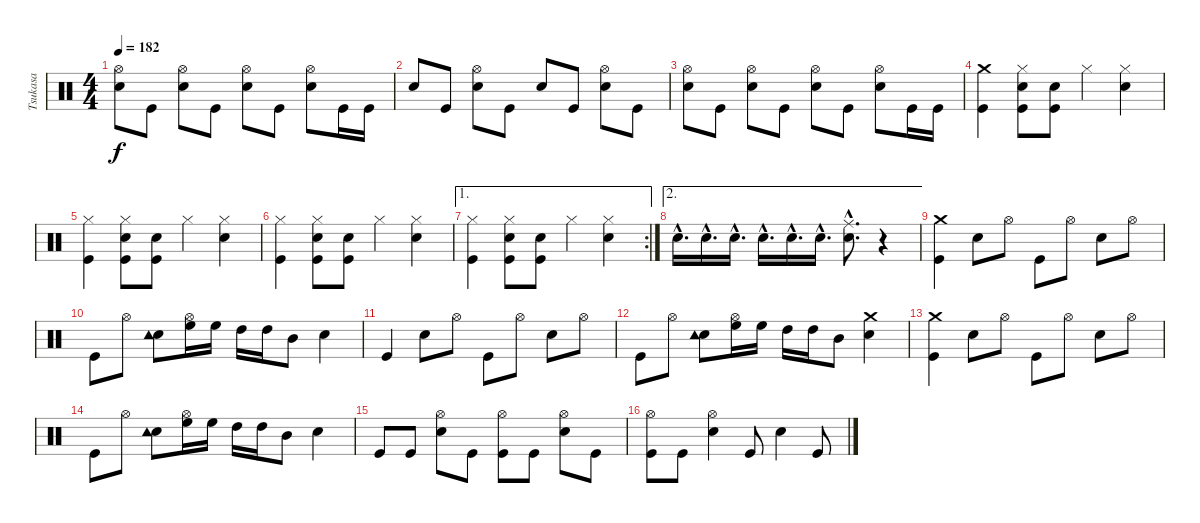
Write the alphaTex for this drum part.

\track ("Tsukasa" "Tsukasa") {instrument percussion}
\staff {score}
\articulation defaults
\ts (4 4)
\tempo 182
\clef neutral
\ks c
("Electric Snare (hit)" "Hi-Hat (open)").8{dy f} "Kick (hit)".8 ("Electric Snare (hit)" "Hi-Hat (open)").8 "Kick (hit)".8 ("Electric Snare (hit)" "Hi-Hat (open)").8 "Kick (hit)".8 ("Electric Snare (hit)" "Hi-Hat (open)").8 "Kick (hit)".16 "Kick (hit)".16 |
"Electric Snare (hit)".8 "Kick (hit)".8 ("Electric Snare (hit)" "Hi-Hat (open)").8 "Kick (hit)".8 "Electric Snare (hit)".8 "Kick (hit)".8 ("Electric Snare (hit)" "Hi-Hat (open)").8 "Kick (hit)".8 |
("Electric Snare (hit)" "Hi-Hat (open)").8 "Kick (hit)".8 ("Electric Snare (hit)" "Hi-Hat (open)").8 "Kick (hit)".8 ("Electric Snare (hit)" "Hi-Hat (open)").8 "Kick (hit)".8 ("Electric Snare (hit)" "Hi-Hat (open)").8 "Kick (hit)".16 "Kick (hit)".16 |
("Kick (hit)" "Crash medium (hit)").4 ("Electric Snare (hit)" "Hi-Hat (closed)" "Kick (hit)").8 ("Electric Snare (hit)" "Kick (hit)").8 "Hi-Hat (closed)".4 ("Electric Snare (hit)" "Hi-Hat (closed)").4 |
("Kick (hit)" "Hi-Hat (closed)").4 ("Electric Snare (hit)" "Hi-Hat (closed)" "Kick (hit)").8 ("Electric Snare (hit)" "Kick (hit)").8 "Hi-Hat (closed)".4 ("Electric Snare (hit)" "Hi-Hat (closed)").4 |
("Kick (hit)" "Hi-Hat (closed)").4 ("Electric Snare (hit)" "Hi-Hat (closed)" "Kick (hit)").8 ("Electric Snare (hit)" "Kick (hit)").8 "Hi-Hat (closed)".4 ("Electric Snare (hit)" "Hi-Hat (closed)").4 |
\ae 1
\rc 2
("Kick (hit)" "Hi-Hat (closed)").4 ("Electric Snare (hit)" "Hi-Hat (closed)" "Kick (hit)").8 ("Electric Snare (hit)" "Kick (hit)").8 "Hi-Hat (closed)".4 ("Electric Snare (hit)" "Hi-Hat (closed)").4 |
\ae 2 "Electric Snare (hit)"{hac}.16{d} "Electric Snare (hit)"{hac}.16{d} "Electric Snare (hit)"{hac}.16{d} "Electric Snare (hit)"{hac}.16{d} "Electric Snare (hit)"{hac}.16{d} "Electric Snare (hit)"{hac}.16{d}
("Electric Snare (hit)"{hac} "Ride (middle)"{hac}).8{d} r.4 |
("Kick (hit)" "Crash medium (hit)").4 "Electric Snare (hit)".8 "Hi-Hat (open)".8 "Kick (hit)".8 "Hi-Hat (open)".8 "Electric Snare (hit)".8 "Hi-Hat (open)".8 |
"Kick (hit)".8 "Hi-Hat (open)".8 ("Electric Snare (hit)" "Tambourine (hit)").8 ("High Floor Tom (hit)" "Hi-Hat (open)").16 "High Floor Tom (hit)".16 "High Tom (hit)".16 "High Tom (hit)".16 "Mid Tom (hit)".8 "Electric Snare (hit)".4 |
"Kick (hit)".4 "Electric Snare (hit)".8 "Hi-Hat (open)".8 "Kick (hit)".8 "Hi-Hat (open)".8 "Electric Snare (hit)".8 "Hi-Hat (open)".8 |
"Kick (hit)".8 "Hi-Hat (open)".8 ("Electric Snare (hit)" "Tambourine (hit)").8 ("High Floor Tom (hit)" "Hi-Hat (open)").16 "High Floor Tom (hit)".16 "High Tom (hit)".16 "High Tom (hit)".16 "Mid Tom (hit)".8 ("Electric Snare (hit)" "Crash medium (hit)").4 |
("Kick (hit)" "Crash medium (hit)").4 "Electric Snare (hit)".8 "Hi-Hat (open)".8 "Kick (hit)".8 "Hi-Hat (open)".8 "Electric Snare (hit)".8 "Hi-Hat (open)".8 |
"Kick (hit)".8 "Hi-Hat (open)".8 ("Electric Snare (hit)" "Tambourine (hit)").8 ("High Floor Tom (hit)" "Hi-Hat (open)").16 "High Floor Tom (hit)".16 "High Tom (hit)".16 "High Tom (hit)".16 "Mid Tom (hit)".8 "Electric Snare (hit)".4 |
"Kick (hit)".8 "Kick (hit)".8 ("Electric Snare (hit)" "Hi-Hat (open)").8 "Kick (hit)".8 ("Kick (hit)" "Hi-Hat (open)").8 "Kick (hit)".8 ("Electric Snare (hit)" "Hi-Hat (open)").8 "Kick (hit)".8 |
("Kick (hit)" "Hi-Hat (open)").8 "Kick (hit)".8 ("Electric Snare (hit)" "Hi-Hat (open)").4 "Kick (hit)".8 "Electric Snare (hit)".4 "Kick (hit)".8
